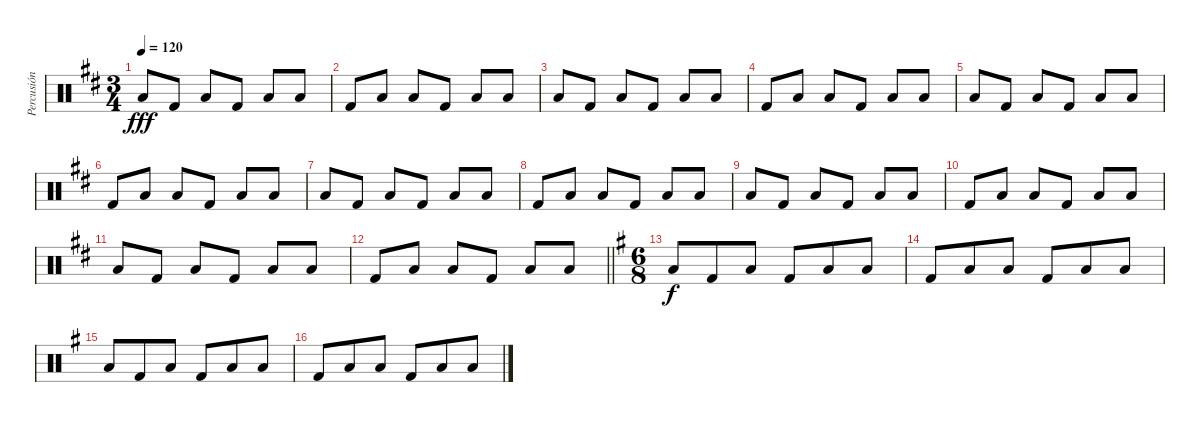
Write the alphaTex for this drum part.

\track ("Percusión" "Percusión") {instrument percussion}
\staff {score}
\articulation defaults
\ts (3 4)
\tempo 120
\clef neutral
\ks d "Low Tom (hit)".8{dy fff} "Kick (hit) 2".8 "Low Tom (hit)".8 "Kick (hit) 2".8 "Low Tom (hit)".8 "Low Tom (hit)".8
|
"Kick (hit) 2".8 "Low Tom (hit)".8 "Low Tom (hit)".8 "Kick (hit) 2".8 "Low Tom (hit)".8 "Low Tom (hit)".8 |
"Low Tom (hit)".8 "Kick (hit) 2".8 "Low Tom (hit)".8 "Kick (hit) 2".8 "Low Tom (hit)".8 "Low Tom (hit)".8 |
"Kick (hit) 2".8 "Low Tom (hit)".8 "Low Tom (hit)".8 "Kick (hit) 2".8 "Low Tom (hit)".8 "Low Tom (hit)".8 |
"Low Tom (hit)".8 "Kick (hit) 2".8 "Low Tom (hit)".8 "Kick (hit) 2".8 "Low Tom (hit)".8 "Low Tom (hit)".8 |
"Kick (hit) 2".8 "Low Tom (hit)".8 "Low Tom (hit)".8 "Kick (hit) 2".8 "Low Tom (hit)".8 "Low Tom (hit)".8 |
"Low Tom (hit)".8 "Kick (hit) 2".8 "Low Tom (hit)".8 "Kick (hit) 2".8 "Low Tom (hit)".8 "Low Tom (hit)".8 |
"Kick (hit) 2".8 "Low Tom (hit)".8 "Low Tom (hit)".8 "Kick (hit) 2".8 "Low Tom (hit)".8 "Low Tom (hit)".8 |
"Low Tom (hit)".8 "Kick (hit) 2".8 "Low Tom (hit)".8 "Kick (hit) 2".8 "Low Tom (hit)".8 "Low Tom (hit)".8 |
"Kick (hit) 2".8 "Low Tom (hit)".8 "Low Tom (hit)".8 "Kick (hit) 2".8 "Low Tom (hit)".8 "Low Tom (hit)".8 |
"Low Tom (hit)".8 "Kick (hit) 2".8 "Low Tom (hit)".8 "Kick (hit) 2".8 "Low Tom (hit)".8 "Low Tom (hit)".8 |
\barLineRight lightlight "Kick (hit) 2".8 "Low Tom (hit)".8 "Low Tom (hit)".8 "Kick (hit) 2".8 "Low Tom (hit)".8 "Low Tom (hit)".8
|
\ts (6 8)
\ks g "Low Tom (hit)".8{dy f} "Kick (hit) 2".8 "Low Tom (hit)".8 "Kick (hit) 2".8 "Low Tom (hit)".8 "Low Tom (hit)".8
|
"Kick (hit) 2".8 "Low Tom (hit)".8 "Low Tom (hit)".8 "Kick (hit) 2".8 "Low Tom (hit)".8 "Low Tom (hit)".8 |
"Low Tom (hit)".8 "Kick (hit) 2".8 "Low Tom (hit)".8 "Kick (hit) 2".8 "Low Tom (hit)".8 "Low Tom (hit)".8 |
"Kick (hit) 2".8 "Low Tom (hit)".8 "Low Tom (hit)".8 "Kick (hit) 2".8 "Low Tom (hit)".8 "Low Tom (hit)".8
